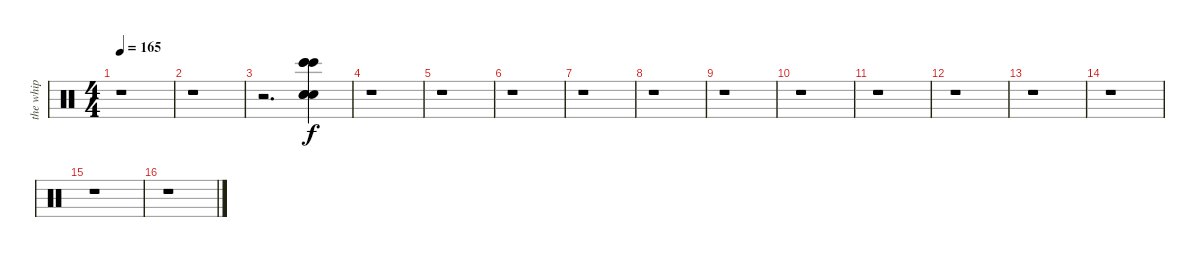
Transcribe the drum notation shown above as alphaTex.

\track ("the whip " "the whip ") {instrument percussion}
\staff {score}
\articulation defaults
\ts (4 4)
\tempo 165
\clef neutral
\ks c
r.1{dy f} |
r.1 |
r.2{d} ("Hand Clap (hit)" "Hand Clap (hit)" "Hand Clap (hit)" "Bongo High (hit)" "Bongo High (hit)" "Bongo High (hit)").4 |
r.1 |
r.1 |
r.1 |
r.1 |
r.1 |
r.1 |
r.1 |
r.1 |
r.1 |
r.1 |
r.1 |
r.1 |
r.1
